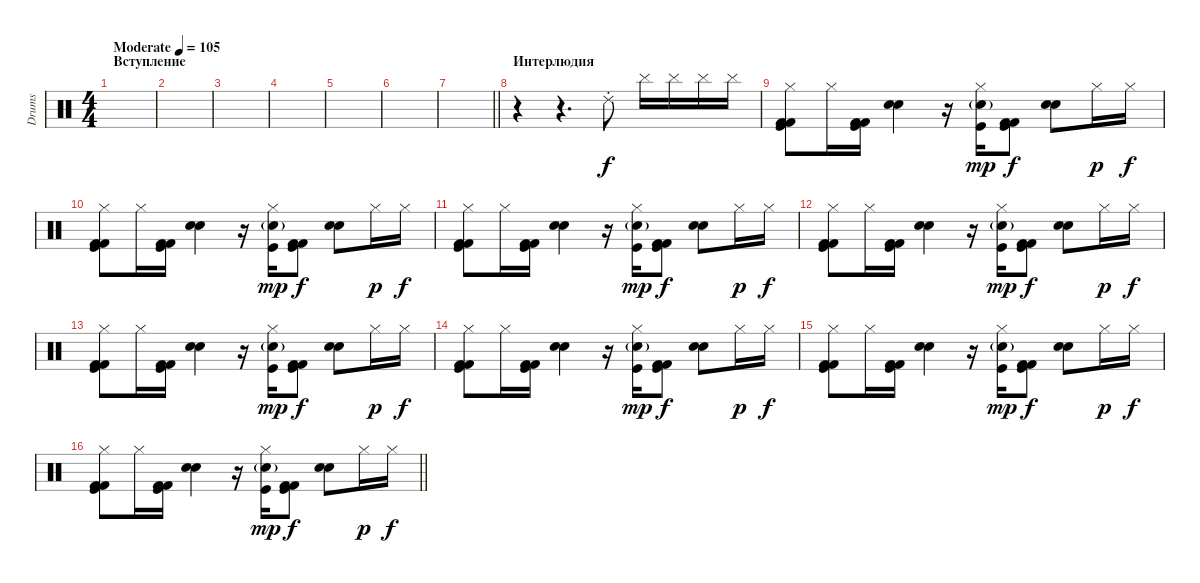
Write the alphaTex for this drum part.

\track ("Drums" "Drums") {instrument percussion}
\staff {score}
\articulation defaults
\ts (4 4)
\section ("" "Вступление")
\tempo (105 "Moderate")
\clef neutral
\ks c
|
|
|
|
|
|
\barLineRight lightlight
|
\section ("" "Интерлюдия")
r.4 r.4{d} "Ride (choke) 2".8 "Cymbal (hit)".16 "Cymbal (hit)".16 "Cymbal (hit)".16 "Cymbal (hit)".16{dy f} |
("Hi-Hat (closed)" "Kick (hit) 2" "Kick (hit) 2" "Kick (hit)").8 "Hi-Hat (closed)".16 ("Kick (hit) 2" "Kick (hit) 2" "Kick (hit)").16 ("Electric Snare (hit)" "Snare (hit) 2").4 r.16 ("Hi-Hat (closed)" "Snare (hit) 2"{g} "Kick (hit)").16{dy mp} ("Kick (hit) 2" "Kick (hit) 2" "Kick (hit)").8{dy f} ("Electric Snare (hit)" "Snare (hit) 2").8 "Hi-Hat (closed)".16{dy p} "Hi-Hat (closed)".16{dy f} |
("Hi-Hat (closed)" "Kick (hit) 2" "Kick (hit) 2" "Kick (hit)").8 "Hi-Hat (closed)".16 ("Kick (hit) 2" "Kick (hit) 2" "Kick (hit)").16 ("Electric Snare (hit)" "Snare (hit) 2").4 r.16 ("Hi-Hat (closed)" "Snare (hit) 2"{g} "Kick (hit)").16{dy mp} ("Kick (hit) 2" "Kick (hit) 2" "Kick (hit)").8{dy f} ("Electric Snare (hit)" "Snare (hit) 2").8 "Hi-Hat (closed)".16{dy p} "Hi-Hat (closed)".16{dy f} |
("Hi-Hat (closed)" "Kick (hit) 2" "Kick (hit) 2" "Kick (hit)").8 "Hi-Hat (closed)".16 ("Kick (hit) 2" "Kick (hit) 2" "Kick (hit)").16 ("Electric Snare (hit)" "Snare (hit) 2").4 r.16 ("Hi-Hat (closed)" "Snare (hit) 2"{g} "Kick (hit)").16{dy mp} ("Kick (hit) 2" "Kick (hit) 2" "Kick (hit)").8{dy f} ("Electric Snare (hit)" "Snare (hit) 2").8 "Hi-Hat (closed)".16{dy p} "Hi-Hat (closed)".16{dy f} |
("Hi-Hat (closed)" "Kick (hit) 2" "Kick (hit) 2" "Kick (hit)").8 "Hi-Hat (closed)".16 ("Kick (hit) 2" "Kick (hit) 2" "Kick (hit)").16 ("Electric Snare (hit)" "Snare (hit) 2").4 r.16 ("Hi-Hat (closed)" "Snare (hit) 2"{g} "Kick (hit)").16{dy mp} ("Kick (hit) 2" "Kick (hit) 2" "Kick (hit)").8{dy f} ("Electric Snare (hit)" "Snare (hit) 2").8 "Hi-Hat (closed)".16{dy p} "Hi-Hat (closed)".16{dy f} |
("Hi-Hat (closed)" "Kick (hit) 2" "Kick (hit) 2" "Kick (hit)").8 "Hi-Hat (closed)".16 ("Kick (hit) 2" "Kick (hit) 2" "Kick (hit)").16 ("Electric Snare (hit)" "Snare (hit) 2").4 r.16 ("Hi-Hat (closed)" "Snare (hit) 2"{g} "Kick (hit)").16{dy mp} ("Kick (hit) 2" "Kick (hit) 2" "Kick (hit)").8{dy f} ("Electric Snare (hit)" "Snare (hit) 2").8 "Hi-Hat (closed)".16{dy p} "Hi-Hat (closed)".16{dy f} |
("Hi-Hat (closed)" "Kick (hit) 2" "Kick (hit) 2" "Kick (hit)").8 "Hi-Hat (closed)".16 ("Kick (hit) 2" "Kick (hit) 2" "Kick (hit)").16 ("Electric Snare (hit)" "Snare (hit) 2").4 r.16 ("Hi-Hat (closed)" "Snare (hit) 2"{g} "Kick (hit)").16{dy mp} ("Kick (hit) 2" "Kick (hit) 2" "Kick (hit)").8{dy f} ("Electric Snare (hit)" "Snare (hit) 2").8 "Hi-Hat (closed)".16{dy p} "Hi-Hat (closed)".16{dy f} |
("Hi-Hat (closed)" "Kick (hit) 2" "Kick (hit) 2" "Kick (hit)").8 "Hi-Hat (closed)".16 ("Kick (hit) 2" "Kick (hit) 2" "Kick (hit)").16 ("Electric Snare (hit)" "Snare (hit) 2").4 r.16 ("Hi-Hat (closed)" "Snare (hit) 2"{g} "Kick (hit)").16{dy mp} ("Kick (hit) 2" "Kick (hit) 2" "Kick (hit)").8{dy f} ("Electric Snare (hit)" "Snare (hit) 2").8 "Hi-Hat (closed)".16{dy p} "Hi-Hat (closed)".16{dy f} |
\barLineRight lightlight
("Hi-Hat (closed)" "Kick (hit) 2" "Kick (hit) 2" "Kick (hit)").8 "Hi-Hat (closed)".16 ("Kick (hit) 2" "Kick (hit) 2" "Kick (hit)").16 ("Electric Snare (hit)" "Snare (hit) 2").4 r.16 ("Hi-Hat (closed)" "Snare (hit) 2"{g} "Kick (hit)").16{dy mp} ("Kick (hit) 2" "Kick (hit) 2" "Kick (hit)").8{dy f} ("Electric Snare (hit)" "Snare (hit) 2").8 "Hi-Hat (closed)".16{dy p} "Hi-Hat (closed)".16{dy f}
